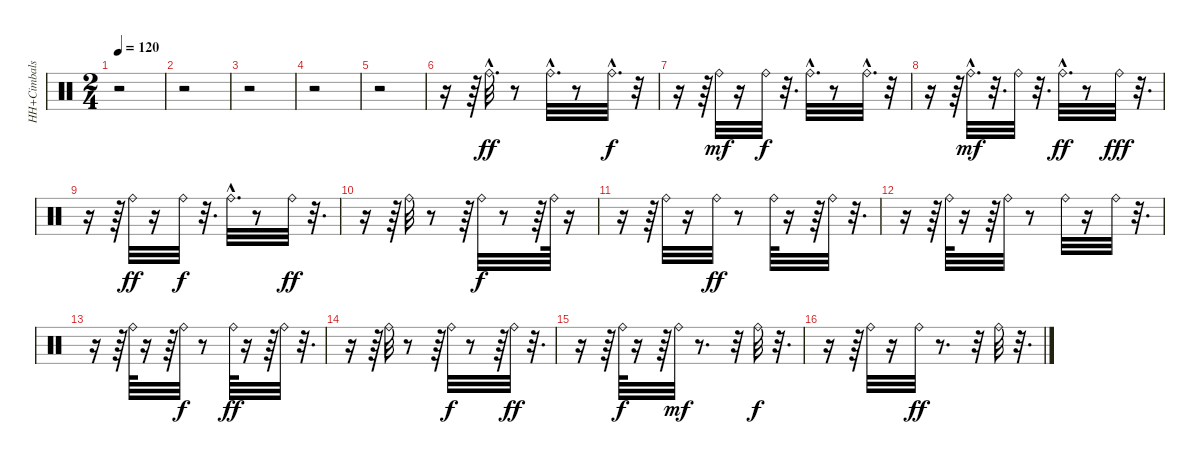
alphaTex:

\track ("HH+Cimbals" "HH+Cimbals") {instrument percussion}
\staff {score}
\articulation defaults
\ts (2 4)
\tempo 120
\clef neutral
\ks c
r.2{dy fff} |
r.2 |
r.2 |
r.2 |
r.2 |
r.16 r.64 "Ride (bell)"{hac}.32{d dy ff} r.8 "Ride (bell)"{hac}.32{d} r.8 "Ride (bell)"{hac}.32{d dy f} r.32 |
r.16 r.64 "Ride (bell)".32{dy mf} r.16 "Ride (bell)".32{dy f} r.32{d} "Ride (bell)"{hac}.32{d} r.8 "Ride (bell)"{hac}.32{d} r.32 |
r.16 r.64 "Ride (bell)"{hac}.32{d dy mf} r.32{d} "Ride (bell)".32 r.32{d} "Ride (bell)"{hac}.32{d dy ff} r.8 "Ride (bell)".32{dy fff} r.32{d} |
r.16 r.64 "Ride (bell)".32{dy ff} r.16 "Ride (bell)".32{dy f} r.32{d} "Ride (bell)"{hac}.32{d} r.8 "Ride (bell)".32{dy ff} r.32{d} |
r.16 r.64 "Ride (bell)".32 r.8 r.64 "Ride (bell)".32{dy f} r.8 r.64 "Ride (bell)".64 r.16 |
r.16 r.64 "Ride (bell)".32 r.16 "Ride (bell)".32{dy ff} r.8 "Ride (bell)".64 r.16 r.64 "Ride (bell)".32 r.32{d} |
r.16 r.64 "Ride (bell)".64 r.16 r.64 "Ride (bell)".32 r.8 "Ride (bell)".32 r.16 "Ride (bell)".32 r.32{d} |
r.16 r.64 "Ride (bell)".64 r.16 r.64 "Ride (bell)".32{dy f} r.8 "Ride (bell)".64{dy ff} r.16 r.64 "Ride (bell)".32 r.32{d} |
r.16 r.64 "Ride (bell)".32 r.8 r.64 "Ride (bell)".32{dy f} r.8 r.64 "Ride (bell)".32{dy ff} r.32{d} |
r.16 r.64 "Ride (bell)".64{dy f} r.16 r.64 "Ride (bell)".32{dy mf} r.8{d} r.32 "Ride (bell)".32{dy f} r.32{d} |
r.16 r.64 "Ride (bell)".32 r.16 "Ride (bell)".32{dy ff} r.8{d} r.32 "Ride (bell)".32 r.32{d}
